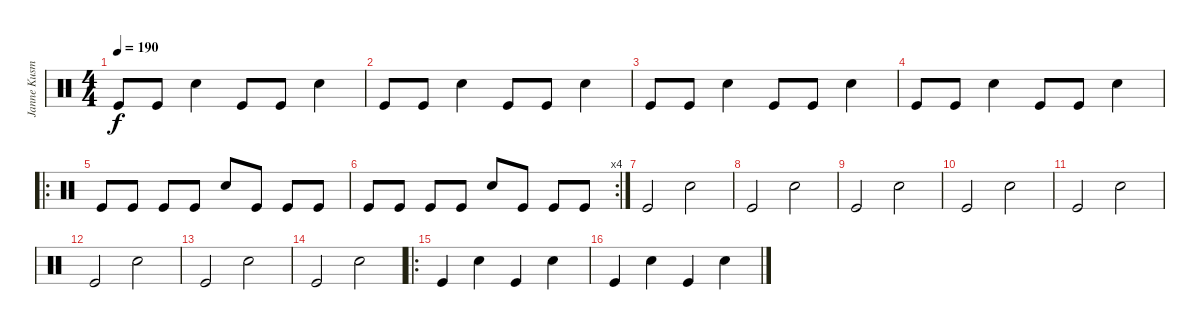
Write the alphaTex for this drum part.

\track ("Janne Kusmin" "Janne Kusm") {instrument percussion}
\staff {score}
\articulation defaults
\ts (4 4)
\tempo 190
\clef neutral
\ks c "Kick (hit)".8{dy f} "Kick (hit)".8 "Electric Snare (hit)".4 "Kick (hit)".8 "Kick (hit)".8 "Electric Snare (hit)".4
|
"Kick (hit)".8 "Kick (hit)".8 "Electric Snare (hit)".4 "Kick (hit)".8 "Kick (hit)".8 "Electric Snare (hit)".4 |
"Kick (hit)".8 "Kick (hit)".8 "Electric Snare (hit)".4 "Kick (hit)".8 "Kick (hit)".8 "Electric Snare (hit)".4 |
"Kick (hit)".8 "Kick (hit)".8 "Electric Snare (hit)".4 "Kick (hit)".8 "Kick (hit)".8 "Electric Snare (hit)".4 |
\ro "Kick (hit)".8 "Kick (hit)".8 "Kick (hit)".8 "Kick (hit)".8 "Electric Snare (hit)".8 "Kick (hit)".8 "Kick (hit)".8 "Kick (hit)".8
|
\rc 4 "Kick (hit)".8 "Kick (hit)".8 "Kick (hit)".8 "Kick (hit)".8 "Electric Snare (hit)".8 "Kick (hit)".8 "Kick (hit)".8 "Kick (hit)".8
|
"Kick (hit)".2 "Electric Snare (hit)".2 |
"Kick (hit)".2 "Electric Snare (hit)".2 |
"Kick (hit)".2 "Electric Snare (hit)".2 |
"Kick (hit)".2 "Electric Snare (hit)".2 |
"Kick (hit)".2 "Electric Snare (hit)".2 |
"Kick (hit)".2 "Electric Snare (hit)".2 |
"Kick (hit)".2 "Electric Snare (hit)".2 |
"Kick (hit)".2 "Electric Snare (hit)".2 |
\ro "Kick (hit)".4 "Electric Snare (hit)".4 "Kick (hit)".4 "Electric Snare (hit)".4
|
"Kick (hit)".4 "Electric Snare (hit)".4 "Kick (hit)".4 "Electric Snare (hit)".4
